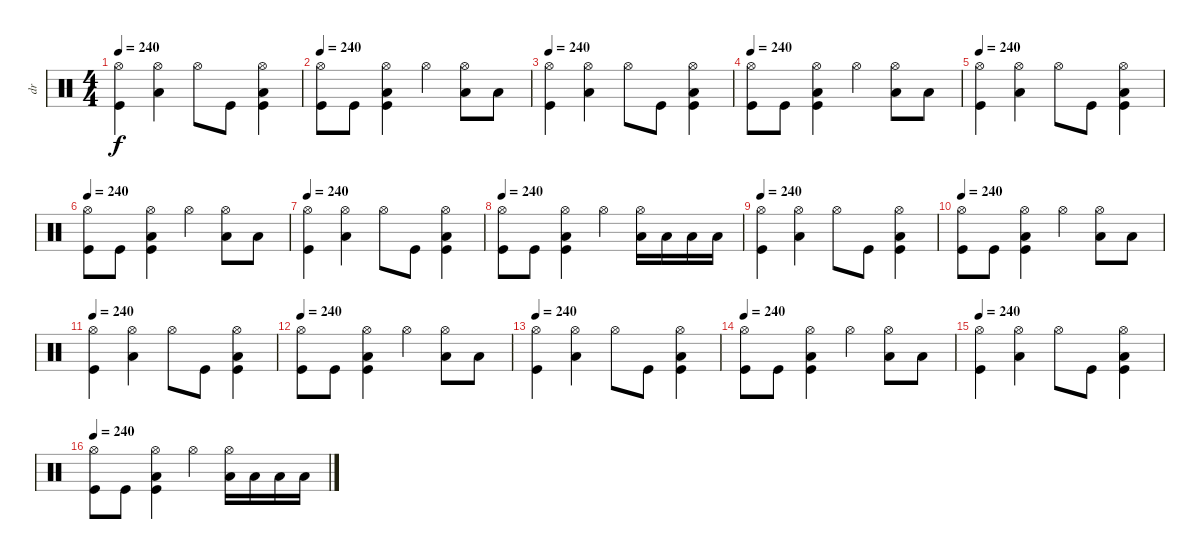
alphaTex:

\track ("dr" "dr") {instrument percussion}
\staff {score}
\articulation defaults
\ts (4 4)
\tempo 240
\clef neutral
\ks c
("Hi-Hat (open)" "Kick (hit)").4{dy f} ("Hi-Hat (open)" "Low Floor Tom (hit)").4 "Hi-Hat (open)".8 "Kick (hit)".8 ("Hi-Hat (open)" "Low Floor Tom (hit)" "Kick (hit)").4 |
\tempo 240
("Hi-Hat (open)" "Kick (hit)").8 "Kick (hit)".8 ("Hi-Hat (open)" "Low Floor Tom (hit)" "Kick (hit)").4 "Hi-Hat (open)".4 ("Hi-Hat (open)" "Low Floor Tom (hit)").8 "Low Floor Tom (hit)".8 |
\tempo 240
("Hi-Hat (open)" "Kick (hit)").4 ("Hi-Hat (open)" "Low Floor Tom (hit)").4 "Hi-Hat (open)".8 "Kick (hit)".8 ("Hi-Hat (open)" "Low Floor Tom (hit)" "Kick (hit)").4 |
\tempo 240
("Hi-Hat (open)" "Kick (hit)").8 "Kick (hit)".8 ("Hi-Hat (open)" "Low Floor Tom (hit)" "Kick (hit)").4 "Hi-Hat (open)".4 ("Hi-Hat (open)" "Low Floor Tom (hit)").8 "Low Floor Tom (hit)".8 |
\tempo 240
("Hi-Hat (open)" "Kick (hit)").4 ("Hi-Hat (open)" "Low Floor Tom (hit)").4 "Hi-Hat (open)".8 "Kick (hit)".8 ("Hi-Hat (open)" "Low Floor Tom (hit)" "Kick (hit)").4 |
\tempo 240
("Hi-Hat (open)" "Kick (hit)").8 "Kick (hit)".8 ("Hi-Hat (open)" "Low Floor Tom (hit)" "Kick (hit)").4 "Hi-Hat (open)".4 ("Hi-Hat (open)" "Low Floor Tom (hit)").8 "Low Floor Tom (hit)".8 |
\tempo 240
("Hi-Hat (open)" "Kick (hit)").4 ("Hi-Hat (open)" "Low Floor Tom (hit)").4 "Hi-Hat (open)".8 "Kick (hit)".8 ("Hi-Hat (open)" "Low Floor Tom (hit)" "Kick (hit)").4 |
\tempo 240
("Hi-Hat (open)" "Kick (hit)").8 "Kick (hit)".8 ("Hi-Hat (open)" "Low Floor Tom (hit)" "Kick (hit)").4 "Hi-Hat (open)".4 ("Hi-Hat (open)" "Low Floor Tom (hit)").16 "Low Floor Tom (hit)".16 "Low Floor Tom (hit)".16 "Low Floor Tom (hit)".16 |
\tempo 240
("Hi-Hat (open)" "Kick (hit)").4 ("Hi-Hat (open)" "Low Floor Tom (hit)").4 "Hi-Hat (open)".8 "Kick (hit)".8 ("Hi-Hat (open)" "Low Floor Tom (hit)" "Kick (hit)").4 |
\tempo 240
("Hi-Hat (open)" "Kick (hit)").8 "Kick (hit)".8 ("Hi-Hat (open)" "Low Floor Tom (hit)" "Kick (hit)").4 "Hi-Hat (open)".4 ("Hi-Hat (open)" "Low Floor Tom (hit)").8 "Low Floor Tom (hit)".8 |
\tempo 240
("Hi-Hat (open)" "Kick (hit)").4 ("Hi-Hat (open)" "Low Floor Tom (hit)").4 "Hi-Hat (open)".8 "Kick (hit)".8 ("Hi-Hat (open)" "Low Floor Tom (hit)" "Kick (hit)").4 |
\tempo 240
("Hi-Hat (open)" "Kick (hit)").8 "Kick (hit)".8 ("Hi-Hat (open)" "Low Floor Tom (hit)" "Kick (hit)").4 "Hi-Hat (open)".4 ("Hi-Hat (open)" "Low Floor Tom (hit)").8 "Low Floor Tom (hit)".8 |
\tempo 240
("Hi-Hat (open)" "Kick (hit)").4 ("Hi-Hat (open)" "Low Floor Tom (hit)").4 "Hi-Hat (open)".8 "Kick (hit)".8 ("Hi-Hat (open)" "Low Floor Tom (hit)" "Kick (hit)").4 |
\tempo 240
("Hi-Hat (open)" "Kick (hit)").8 "Kick (hit)".8 ("Hi-Hat (open)" "Low Floor Tom (hit)" "Kick (hit)").4 "Hi-Hat (open)".4 ("Hi-Hat (open)" "Low Floor Tom (hit)").8 "Low Floor Tom (hit)".8 |
\tempo 240
("Hi-Hat (open)" "Kick (hit)").4 ("Hi-Hat (open)" "Low Floor Tom (hit)").4 "Hi-Hat (open)".8 "Kick (hit)".8 ("Hi-Hat (open)" "Low Floor Tom (hit)" "Kick (hit)").4 |
\tempo 240
("Hi-Hat (open)" "Kick (hit)").8 "Kick (hit)".8 ("Hi-Hat (open)" "Low Floor Tom (hit)" "Kick (hit)").4 "Hi-Hat (open)".4 ("Hi-Hat (open)" "Low Floor Tom (hit)").16 "Low Floor Tom (hit)".16 "Low Floor Tom (hit)".16 "Low Floor Tom (hit)".16
